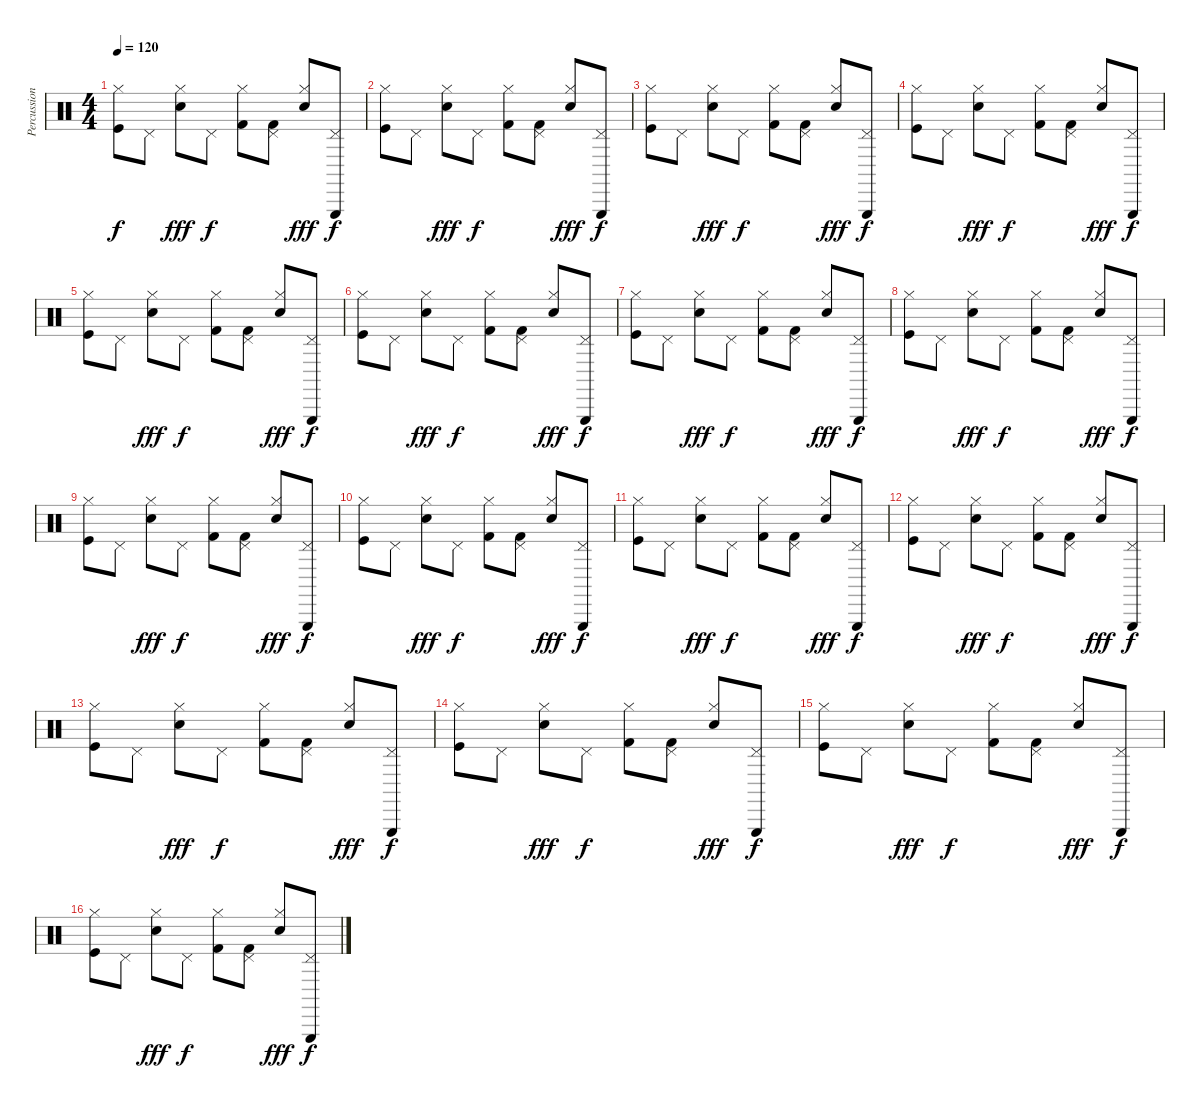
\track ("Percussions" "Percussion") {instrument percussion}
\staff {score}
\articulation defaults
\ts (4 4)
\tempo 120
\clef neutral
\ks c
("Hi-Hat (closed)" "Kick (hit)").8{dy f} "Pedal Hi-Hat (hit)".8 ("Electric Snare (hit)" "Hi-Hat (closed)").8{dy fff} "Pedal Hi-Hat (hit)".8{dy f} ("Kick (hit) 2" "Hi-Hat (closed)").8 ("Kick (hit) 2" "Pedal Hi-Hat (hit)").8 ("Electric Snare (hit)" "Hi-Hat (closed)").8{dy fff} ("Triangle (hit)" "Pedal Hi-Hat (hit)").8{dy f} |
("Hi-Hat (closed)" "Kick (hit)").8 "Pedal Hi-Hat (hit)".8 ("Electric Snare (hit)" "Hi-Hat (closed)").8{dy fff} "Pedal Hi-Hat (hit)".8{dy f} ("Kick (hit) 2" "Hi-Hat (closed)").8 ("Kick (hit) 2" "Pedal Hi-Hat (hit)").8 ("Electric Snare (hit)" "Hi-Hat (closed)").8{dy fff} ("Triangle (hit)" "Pedal Hi-Hat (hit)").8{dy f} |
("Hi-Hat (closed)" "Kick (hit)").8 "Pedal Hi-Hat (hit)".8 ("Electric Snare (hit)" "Hi-Hat (closed)").8{dy fff} "Pedal Hi-Hat (hit)".8{dy f} ("Kick (hit) 2" "Hi-Hat (closed)").8 ("Kick (hit) 2" "Pedal Hi-Hat (hit)").8 ("Electric Snare (hit)" "Hi-Hat (closed)").8{dy fff} ("Triangle (hit)" "Pedal Hi-Hat (hit)").8{dy f} |
("Hi-Hat (closed)" "Kick (hit)").8 "Pedal Hi-Hat (hit)".8 ("Electric Snare (hit)" "Hi-Hat (closed)").8{dy fff} "Pedal Hi-Hat (hit)".8{dy f} ("Kick (hit) 2" "Hi-Hat (closed)").8 ("Kick (hit) 2" "Pedal Hi-Hat (hit)").8 ("Electric Snare (hit)" "Hi-Hat (closed)").8{dy fff} ("Triangle (hit)" "Pedal Hi-Hat (hit)").8{dy f} |
("Hi-Hat (closed)" "Kick (hit)").8 "Pedal Hi-Hat (hit)".8 ("Electric Snare (hit)" "Hi-Hat (closed)").8{dy fff} "Pedal Hi-Hat (hit)".8{dy f} ("Kick (hit) 2" "Hi-Hat (closed)").8 ("Kick (hit) 2" "Pedal Hi-Hat (hit)").8 ("Electric Snare (hit)" "Hi-Hat (closed)").8{dy fff} ("Triangle (hit)" "Pedal Hi-Hat (hit)").8{dy f} |
("Hi-Hat (closed)" "Kick (hit)").8 "Pedal Hi-Hat (hit)".8 ("Electric Snare (hit)" "Hi-Hat (closed)").8{dy fff} "Pedal Hi-Hat (hit)".8{dy f} ("Kick (hit) 2" "Hi-Hat (closed)").8 ("Kick (hit) 2" "Pedal Hi-Hat (hit)").8 ("Electric Snare (hit)" "Hi-Hat (closed)").8{dy fff} ("Triangle (hit)" "Pedal Hi-Hat (hit)").8{dy f} |
("Hi-Hat (closed)" "Kick (hit)").8 "Pedal Hi-Hat (hit)".8 ("Electric Snare (hit)" "Hi-Hat (closed)").8{dy fff} "Pedal Hi-Hat (hit)".8{dy f} ("Kick (hit) 2" "Hi-Hat (closed)").8 ("Kick (hit) 2" "Pedal Hi-Hat (hit)").8 ("Electric Snare (hit)" "Hi-Hat (closed)").8{dy fff} ("Triangle (hit)" "Pedal Hi-Hat (hit)").8{dy f} |
("Hi-Hat (closed)" "Kick (hit)").8 "Pedal Hi-Hat (hit)".8 ("Electric Snare (hit)" "Hi-Hat (closed)").8{dy fff} "Pedal Hi-Hat (hit)".8{dy f} ("Kick (hit) 2" "Hi-Hat (closed)").8 ("Kick (hit) 2" "Pedal Hi-Hat (hit)").8 ("Electric Snare (hit)" "Hi-Hat (closed)").8{dy fff} ("Triangle (hit)" "Pedal Hi-Hat (hit)").8{dy f} |
("Hi-Hat (closed)" "Kick (hit)").8 "Pedal Hi-Hat (hit)".8 ("Electric Snare (hit)" "Hi-Hat (closed)").8{dy fff} "Pedal Hi-Hat (hit)".8{dy f} ("Kick (hit) 2" "Hi-Hat (closed)").8 ("Kick (hit) 2" "Pedal Hi-Hat (hit)").8 ("Electric Snare (hit)" "Hi-Hat (closed)").8{dy fff} ("Triangle (hit)" "Pedal Hi-Hat (hit)").8{dy f} |
("Hi-Hat (closed)" "Kick (hit)").8 "Pedal Hi-Hat (hit)".8 ("Electric Snare (hit)" "Hi-Hat (closed)").8{dy fff} "Pedal Hi-Hat (hit)".8{dy f} ("Kick (hit) 2" "Hi-Hat (closed)").8 ("Kick (hit) 2" "Pedal Hi-Hat (hit)").8 ("Electric Snare (hit)" "Hi-Hat (closed)").8{dy fff} ("Triangle (hit)" "Pedal Hi-Hat (hit)").8{dy f} |
("Hi-Hat (closed)" "Kick (hit)").8 "Pedal Hi-Hat (hit)".8 ("Electric Snare (hit)" "Hi-Hat (closed)").8{dy fff} "Pedal Hi-Hat (hit)".8{dy f} ("Kick (hit) 2" "Hi-Hat (closed)").8 ("Kick (hit) 2" "Pedal Hi-Hat (hit)").8 ("Electric Snare (hit)" "Hi-Hat (closed)").8{dy fff} ("Triangle (hit)" "Pedal Hi-Hat (hit)").8{dy f} |
("Hi-Hat (closed)" "Kick (hit)").8 "Pedal Hi-Hat (hit)".8 ("Electric Snare (hit)" "Hi-Hat (closed)").8{dy fff} "Pedal Hi-Hat (hit)".8{dy f} ("Kick (hit) 2" "Hi-Hat (closed)").8 ("Kick (hit) 2" "Pedal Hi-Hat (hit)").8 ("Electric Snare (hit)" "Hi-Hat (closed)").8{dy fff} ("Triangle (hit)" "Pedal Hi-Hat (hit)").8{dy f} |
("Hi-Hat (closed)" "Kick (hit)").8 "Pedal Hi-Hat (hit)".8 ("Electric Snare (hit)" "Hi-Hat (closed)").8{dy fff} "Pedal Hi-Hat (hit)".8{dy f} ("Kick (hit) 2" "Hi-Hat (closed)").8 ("Kick (hit) 2" "Pedal Hi-Hat (hit)").8 ("Electric Snare (hit)" "Hi-Hat (closed)").8{dy fff} ("Triangle (hit)" "Pedal Hi-Hat (hit)").8{dy f} |
("Hi-Hat (closed)" "Kick (hit)").8 "Pedal Hi-Hat (hit)".8 ("Electric Snare (hit)" "Hi-Hat (closed)").8{dy fff} "Pedal Hi-Hat (hit)".8{dy f} ("Kick (hit) 2" "Hi-Hat (closed)").8 ("Kick (hit) 2" "Pedal Hi-Hat (hit)").8 ("Electric Snare (hit)" "Hi-Hat (closed)").8{dy fff} ("Triangle (hit)" "Pedal Hi-Hat (hit)").8{dy f} |
("Hi-Hat (closed)" "Kick (hit)").8 "Pedal Hi-Hat (hit)".8 ("Electric Snare (hit)" "Hi-Hat (closed)").8{dy fff} "Pedal Hi-Hat (hit)".8{dy f} ("Kick (hit) 2" "Hi-Hat (closed)").8 ("Kick (hit) 2" "Pedal Hi-Hat (hit)").8 ("Electric Snare (hit)" "Hi-Hat (closed)").8{dy fff} ("Triangle (hit)" "Pedal Hi-Hat (hit)").8{dy f} |
("Hi-Hat (closed)" "Kick (hit)").8 "Pedal Hi-Hat (hit)".8 ("Electric Snare (hit)" "Hi-Hat (closed)").8{dy fff} "Pedal Hi-Hat (hit)".8{dy f} ("Kick (hit) 2" "Hi-Hat (closed)").8 ("Kick (hit) 2" "Pedal Hi-Hat (hit)").8 ("Electric Snare (hit)" "Hi-Hat (closed)").8{dy fff} ("Triangle (hit)" "Pedal Hi-Hat (hit)").8{dy f}
